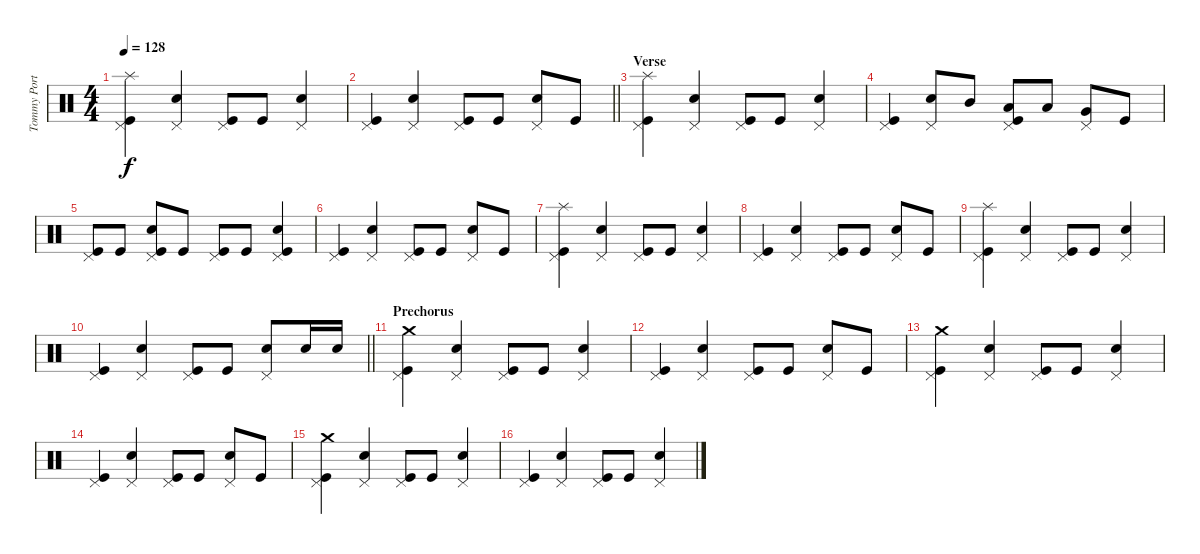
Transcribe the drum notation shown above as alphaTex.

\track ("Tommy Portimo - Drums" "Tommy Port") {instrument percussion}
\staff {score}
\articulation defaults
\ts (4 4)
\tempo 128
\clef neutral
\ks c
("Splash (hit)" "Pedal Hi-Hat (hit)" "Kick (hit)").4{dy f} ("Pedal Hi-Hat (hit)" "Electric Snare (hit)").4 ("Pedal Hi-Hat (hit)" "Kick (hit)").8 "Kick (hit)".8 ("Pedal Hi-Hat (hit)" "Electric Snare (hit)").4 |
\barLineRight lightlight
("Pedal Hi-Hat (hit)" "Kick (hit)").4 ("Pedal Hi-Hat (hit)" "Electric Snare (hit)").4 ("Pedal Hi-Hat (hit)" "Kick (hit)").8 "Kick (hit)".8 ("Pedal Hi-Hat (hit)" "Electric Snare (hit)").8 "Kick (hit)".8 |
\section ("" "Verse")
("Splash (hit)" "Pedal Hi-Hat (hit)" "Kick (hit)").4 ("Pedal Hi-Hat (hit)" "Electric Snare (hit)").4 ("Pedal Hi-Hat (hit)" "Kick (hit)").8 "Kick (hit)".8 ("Pedal Hi-Hat (hit)" "Electric Snare (hit)").4 |
("Pedal Hi-Hat (hit)" "Kick (hit)").4 ("Pedal Hi-Hat (hit)" "Electric Snare (hit)").8 "Mid Tom (hit)".8 ("Pedal Hi-Hat (hit)" "Low Tom (hit)" "Kick (hit)").8 "Low Tom (hit)".8 ("Pedal Hi-Hat (hit)" "Very Low Tom (hit)").8 "Kick (hit)".8 |
("Pedal Hi-Hat (hit)" "Kick (hit)").8 "Kick (hit)".8 ("Pedal Hi-Hat (hit)" "Electric Snare (hit)" "Kick (hit)").8 "Kick (hit)".8 ("Pedal Hi-Hat (hit)" "Kick (hit)").8 "Kick (hit)".8 ("Pedal Hi-Hat (hit)" "Electric Snare (hit)" "Kick (hit)").4 |
("Pedal Hi-Hat (hit)" "Kick (hit)").4 ("Pedal Hi-Hat (hit)" "Electric Snare (hit)").4 ("Pedal Hi-Hat (hit)" "Kick (hit)").8 "Kick (hit)".8 ("Pedal Hi-Hat (hit)" "Electric Snare (hit)").8 "Kick (hit)".8 |
("Splash (hit)" "Pedal Hi-Hat (hit)" "Kick (hit)").4 ("Pedal Hi-Hat (hit)" "Electric Snare (hit)").4 ("Pedal Hi-Hat (hit)" "Kick (hit)").8 "Kick (hit)".8 ("Pedal Hi-Hat (hit)" "Electric Snare (hit)").4 |
("Pedal Hi-Hat (hit)" "Kick (hit)").4 ("Pedal Hi-Hat (hit)" "Electric Snare (hit)").4 ("Pedal Hi-Hat (hit)" "Kick (hit)").8 "Kick (hit)".8 ("Pedal Hi-Hat (hit)" "Electric Snare (hit)").8 "Kick (hit)".8 |
("Splash (hit)" "Pedal Hi-Hat (hit)" "Kick (hit)").4 ("Pedal Hi-Hat (hit)" "Electric Snare (hit)").4 ("Pedal Hi-Hat (hit)" "Kick (hit)").8 "Kick (hit)".8 ("Pedal Hi-Hat (hit)" "Electric Snare (hit)").4 |
\barLineRight lightlight
("Pedal Hi-Hat (hit)" "Kick (hit)").4 ("Pedal Hi-Hat (hit)" "Electric Snare (hit)").4 ("Pedal Hi-Hat (hit)" "Kick (hit)").8 "Kick (hit)".8 ("Pedal Hi-Hat (hit)" "Electric Snare (hit)").8 "Electric Snare (hit)".16 "Electric Snare (hit)".16 |
\section ("" "Prechorus")
("Crash medium (hit)" "Pedal Hi-Hat (hit)" "Kick (hit)").4 ("Pedal Hi-Hat (hit)" "Electric Snare (hit)").4 ("Pedal Hi-Hat (hit)" "Kick (hit)").8 "Kick (hit)".8 ("Pedal Hi-Hat (hit)" "Electric Snare (hit)").4 |
("Pedal Hi-Hat (hit)" "Kick (hit)").4 ("Pedal Hi-Hat (hit)" "Electric Snare (hit)").4 ("Pedal Hi-Hat (hit)" "Kick (hit)").8 "Kick (hit)".8 ("Pedal Hi-Hat (hit)" "Electric Snare (hit)").8 "Kick (hit)".8 |
("Crash medium (hit)" "Pedal Hi-Hat (hit)" "Kick (hit)").4 ("Pedal Hi-Hat (hit)" "Electric Snare (hit)").4 ("Pedal Hi-Hat (hit)" "Kick (hit)").8 "Kick (hit)".8 ("Pedal Hi-Hat (hit)" "Electric Snare (hit)").4 |
("Pedal Hi-Hat (hit)" "Kick (hit)").4 ("Pedal Hi-Hat (hit)" "Electric Snare (hit)").4 ("Pedal Hi-Hat (hit)" "Kick (hit)").8 "Kick (hit)".8 ("Pedal Hi-Hat (hit)" "Electric Snare (hit)").8 "Kick (hit)".8 |
("Crash medium (hit)" "Pedal Hi-Hat (hit)" "Kick (hit)").4 ("Pedal Hi-Hat (hit)" "Electric Snare (hit)").4 ("Pedal Hi-Hat (hit)" "Kick (hit)").8 "Kick (hit)".8 ("Pedal Hi-Hat (hit)" "Electric Snare (hit)").4 |
("Pedal Hi-Hat (hit)" "Kick (hit)").4 ("Pedal Hi-Hat (hit)" "Electric Snare (hit)").4 ("Pedal Hi-Hat (hit)" "Kick (hit)").8 "Kick (hit)".8 ("Pedal Hi-Hat (hit)" "Electric Snare (hit)").4
